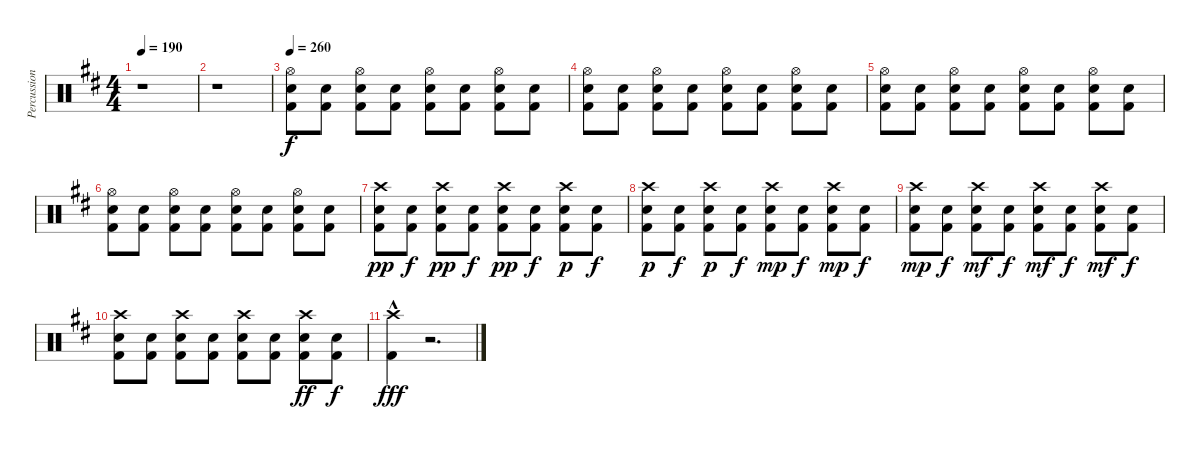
\track ("Percussion" "Percussion") {instrument percussion}
\staff {score}
\articulation defaults
\ts (4 4)
\tempo 190
\clef neutral
\ks d
r.1{dy f} |
r.1 |
\tempo 260
("Electric Snare (hit)" "Kick (hit) 2" "Hi-Hat (open)").8 ("Kick (hit) 2" "Electric Snare (hit)").8 ("Kick (hit) 2" "Electric Snare (hit)" "Hi-Hat (open)").8 ("Kick (hit) 2" "Electric Snare (hit)").8 ("Kick (hit) 2" "Hi-Hat (open)" "Electric Snare (hit)").8 ("Electric Snare (hit)" "Kick (hit) 2").8 ("Kick (hit) 2" "Electric Snare (hit)" "Hi-Hat (open)").8 ("Kick (hit) 2" "Electric Snare (hit)").8 |
("Electric Snare (hit)" "Kick (hit) 2" "Hi-Hat (open)").8 ("Kick (hit) 2" "Electric Snare (hit)").8 ("Kick (hit) 2" "Electric Snare (hit)" "Hi-Hat (open)").8 ("Kick (hit) 2" "Electric Snare (hit)").8 ("Kick (hit) 2" "Hi-Hat (open)" "Electric Snare (hit)").8 ("Electric Snare (hit)" "Kick (hit) 2").8 ("Kick (hit) 2" "Electric Snare (hit)" "Hi-Hat (open)").8 ("Kick (hit) 2" "Electric Snare (hit)").8 |
("Electric Snare (hit)" "Kick (hit) 2" "Hi-Hat (open)").8 ("Kick (hit) 2" "Electric Snare (hit)").8 ("Kick (hit) 2" "Electric Snare (hit)" "Hi-Hat (open)").8 ("Kick (hit) 2" "Electric Snare (hit)").8 ("Kick (hit) 2" "Hi-Hat (open)" "Electric Snare (hit)").8 ("Electric Snare (hit)" "Kick (hit) 2").8 ("Kick (hit) 2" "Electric Snare (hit)" "Hi-Hat (open)").8 ("Kick (hit) 2" "Electric Snare (hit)").8 |
("Electric Snare (hit)" "Kick (hit) 2" "Hi-Hat (open)").8 ("Kick (hit) 2" "Electric Snare (hit)").8 ("Kick (hit) 2" "Electric Snare (hit)" "Hi-Hat (open)").8 ("Kick (hit) 2" "Electric Snare (hit)").8 ("Kick (hit) 2" "Hi-Hat (open)" "Electric Snare (hit)").8 ("Electric Snare (hit)" "Kick (hit) 2").8 ("Kick (hit) 2" "Electric Snare (hit)" "Hi-Hat (open)").8 ("Kick (hit) 2" "Electric Snare (hit)").8 |
("Electric Snare (hit)" "Kick (hit) 2" "Crash high (hit)").8{dy pp} ("Kick (hit) 2" "Electric Snare (hit)").8{dy f} ("Kick (hit) 2" "Electric Snare (hit)" "Crash high (hit)").8{dy pp} ("Kick (hit) 2" "Electric Snare (hit)").8{dy f} ("Kick (hit) 2" "Crash high (hit)" "Electric Snare (hit)").8{dy pp} ("Electric Snare (hit)" "Kick (hit) 2").8{dy f} ("Kick (hit) 2" "Electric Snare (hit)" "Crash high (hit)").8{dy p} ("Kick (hit) 2" "Electric Snare (hit)").8{dy f} |
("Electric Snare (hit)" "Kick (hit) 2" "Crash high (hit)").8{dy p} ("Kick (hit) 2" "Electric Snare (hit)").8{dy f} ("Kick (hit) 2" "Electric Snare (hit)" "Crash high (hit)").8{dy p} ("Kick (hit) 2" "Electric Snare (hit)").8{dy f} ("Kick (hit) 2" "Crash high (hit)" "Electric Snare (hit)").8{dy mp} ("Electric Snare (hit)" "Kick (hit) 2").8{dy f} ("Kick (hit) 2" "Electric Snare (hit)" "Crash high (hit)").8{dy mp} ("Kick (hit) 2" "Electric Snare (hit)").8{dy f} |
("Electric Snare (hit)" "Kick (hit) 2" "Crash high (hit)").8{dy mp} ("Kick (hit) 2" "Electric Snare (hit)").8{dy f} ("Kick (hit) 2" "Electric Snare (hit)" "Crash high (hit)").8{dy mf} ("Kick (hit) 2" "Electric Snare (hit)").8{dy f} ("Kick (hit) 2" "Crash high (hit)" "Electric Snare (hit)").8{dy mf} ("Electric Snare (hit)" "Kick (hit) 2").8{dy f} ("Kick (hit) 2" "Electric Snare (hit)" "Crash high (hit)").8{dy mf} ("Kick (hit) 2" "Electric Snare (hit)").8{dy f} |
("Electric Snare (hit)" "Kick (hit) 2" "Crash high (hit)").8 ("Kick (hit) 2" "Electric Snare (hit)").8 ("Kick (hit) 2" "Electric Snare (hit)" "Crash high (hit)").8 ("Kick (hit) 2" "Electric Snare (hit)").8 ("Kick (hit) 2" "Crash high (hit)" "Electric Snare (hit)").8 ("Electric Snare (hit)" "Kick (hit) 2").8 ("Kick (hit) 2" "Electric Snare (hit)" "Crash high (hit)").8{dy ff} ("Kick (hit) 2" "Electric Snare (hit)").8{dy f} |
("Crash high (hit)"{hac} "Kick (hit) 2").4{dy fff} r.2{d volume 0}
